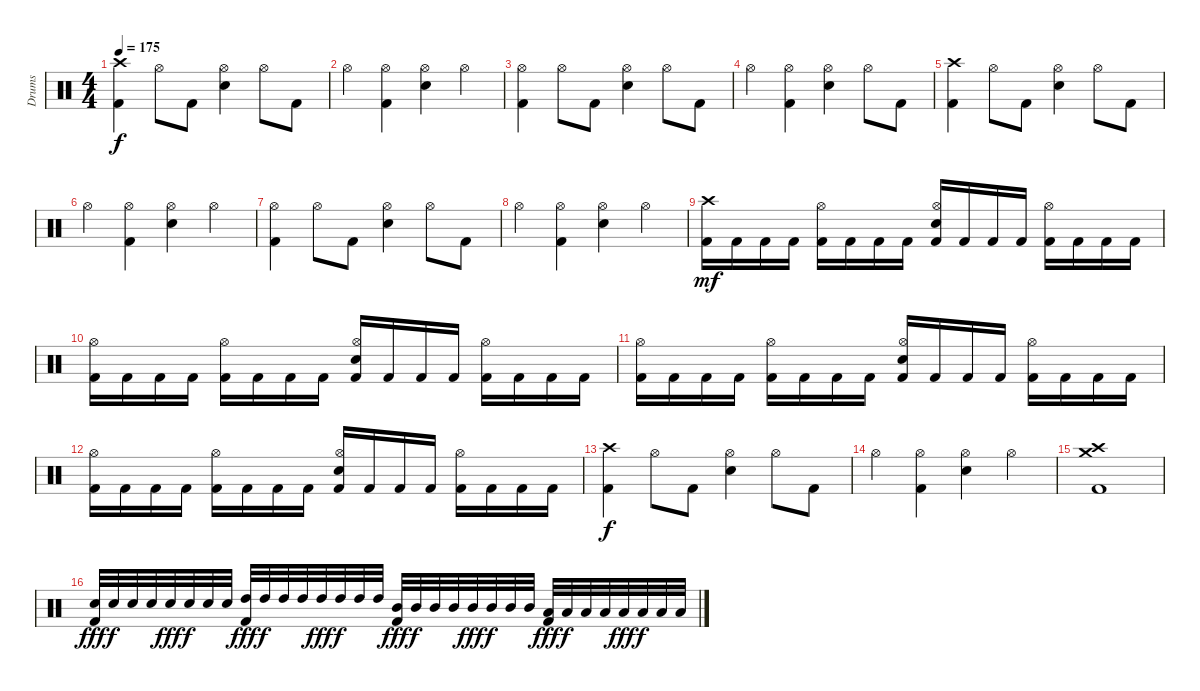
\track ("Drums" "Drums") {instrument percussion}
\staff {score}
\articulation defaults
\ts (4 4)
\tempo 175
\clef neutral
\ks c
("Crash high (hit)" "Kick (hit) 2").4{dy f} "Hi-Hat (open)".8 "Kick (hit) 2".8 ("Hi-Hat (open)" "Electric Snare (hit)").4 "Hi-Hat (open)".8 "Kick (hit) 2".8 |
"Hi-Hat (open)".4 ("Hi-Hat (open)" "Kick (hit) 2").4 ("Hi-Hat (open)" "Electric Snare (hit)").4 "Hi-Hat (open)".4 |
("Hi-Hat (open)" "Kick (hit) 2").4 "Hi-Hat (open)".8 "Kick (hit) 2".8 ("Hi-Hat (open)" "Electric Snare (hit)").4 "Hi-Hat (open)".8 "Kick (hit) 2".8 |
"Hi-Hat (open)".4 ("Hi-Hat (open)" "Kick (hit) 2").4 ("Hi-Hat (open)" "Electric Snare (hit)").4 "Hi-Hat (open)".8 "Kick (hit) 2".8 |
("Crash high (hit)" "Kick (hit) 2").4 "Hi-Hat (open)".8 "Kick (hit) 2".8 ("Hi-Hat (open)" "Electric Snare (hit)").4 "Hi-Hat (open)".8 "Kick (hit) 2".8 |
"Hi-Hat (open)".4 ("Hi-Hat (open)" "Kick (hit) 2").4 ("Hi-Hat (open)" "Electric Snare (hit)").4 "Hi-Hat (open)".4 |
("Hi-Hat (open)" "Kick (hit) 2").4 "Hi-Hat (open)".8 "Kick (hit) 2".8 ("Hi-Hat (open)" "Electric Snare (hit)").4 "Hi-Hat (open)".8 "Kick (hit) 2".8 |
"Hi-Hat (open)".4 ("Hi-Hat (open)" "Kick (hit) 2").4 ("Hi-Hat (open)" "Electric Snare (hit)").4 "Hi-Hat (open)".4 |
\section ("" "")
("Crash high (hit)" "Kick (hit) 2").16{dy mf} "Kick (hit) 2".16 "Kick (hit) 2".16 "Kick (hit) 2".16 ("Hi-Hat (open)" "Kick (hit) 2").16 "Kick (hit) 2".16 "Kick (hit) 2".16 "Kick (hit) 2".16 ("Hi-Hat (open)" "Electric Snare (hit)" "Kick (hit) 2").16 "Kick (hit) 2".16 "Kick (hit) 2".16 "Kick (hit) 2".16 ("Hi-Hat (open)" "Kick (hit) 2").16 "Kick (hit) 2".16 "Kick (hit) 2".16 "Kick (hit) 2".16 |
("Hi-Hat (open)" "Kick (hit) 2").16 "Kick (hit) 2".16 "Kick (hit) 2".16 "Kick (hit) 2".16 ("Hi-Hat (open)" "Kick (hit) 2").16 "Kick (hit) 2".16 "Kick (hit) 2".16 "Kick (hit) 2".16 ("Hi-Hat (open)" "Electric Snare (hit)" "Kick (hit) 2").16 "Kick (hit) 2".16 "Kick (hit) 2".16 "Kick (hit) 2".16 ("Hi-Hat (open)" "Kick (hit) 2").16 "Kick (hit) 2".16 "Kick (hit) 2".16 "Kick (hit) 2".16 |
("Hi-Hat (open)" "Kick (hit) 2").16 "Kick (hit) 2".16 "Kick (hit) 2".16 "Kick (hit) 2".16 ("Hi-Hat (open)" "Kick (hit) 2").16 "Kick (hit) 2".16 "Kick (hit) 2".16 "Kick (hit) 2".16 ("Hi-Hat (open)" "Electric Snare (hit)" "Kick (hit) 2").16 "Kick (hit) 2".16 "Kick (hit) 2".16 "Kick (hit) 2".16 ("Hi-Hat (open)" "Kick (hit) 2").16 "Kick (hit) 2".16 "Kick (hit) 2".16 "Kick (hit) 2".16 |
("Hi-Hat (open)" "Kick (hit) 2").16 "Kick (hit) 2".16 "Kick (hit) 2".16 "Kick (hit) 2".16 ("Hi-Hat (open)" "Kick (hit) 2").16 "Kick (hit) 2".16 "Kick (hit) 2".16 "Kick (hit) 2".16 ("Hi-Hat (open)" "Electric Snare (hit)" "Kick (hit) 2").16 "Kick (hit) 2".16 "Kick (hit) 2".16 "Kick (hit) 2".16 ("Hi-Hat (open)" "Kick (hit) 2").16 "Kick (hit) 2".16 "Kick (hit) 2".16 "Kick (hit) 2".16 |
("Crash high (hit)" "Kick (hit) 2").4{dy f} "Hi-Hat (open)".8 "Kick (hit) 2".8 ("Hi-Hat (open)" "Electric Snare (hit)").4 "Hi-Hat (open)".8 "Kick (hit) 2".8 |
"Hi-Hat (open)".4 ("Hi-Hat (open)" "Kick (hit) 2").4 ("Hi-Hat (open)" "Electric Snare (hit)").4 "Hi-Hat (open)".4 |
("Crash high (hit)" "Crash medium (hit)" "Kick (hit) 2").1 |
("Electric Snare (hit)" "Kick (hit) 2").32{dy fff} "Electric Snare (hit)".32{dy f} "Electric Snare (hit)".32 "Electric Snare (hit)".32 "Electric Snare (hit)".32{dy fff} "Electric Snare (hit)".32{dy f} "Electric Snare (hit)".32 "Electric Snare (hit)".32 ("High Tom (hit)" "Kick (hit) 2").32{dy fff} "High Tom (hit)".32{dy f} "High Tom (hit)".32 "High Tom (hit)".32 "High Tom (hit)".32{dy fff} "High Tom (hit)".32{dy f} "High Tom (hit)".32 "High Tom (hit)".32 ("Mid Tom (hit)" "Kick (hit) 2").32{dy fff} "Mid Tom (hit)".32{dy f} "Mid Tom (hit)".32 "Mid Tom (hit)".32 "Mid Tom (hit)".32{dy fff} "Mid Tom (hit)".32{dy f} "Mid Tom (hit)".32 "Mid Tom (hit)".32 ("Low Tom (hit)" "Kick (hit) 2").32{dy fff} "Low Tom (hit)".32{dy f} "Low Tom (hit)".32 "Low Tom (hit)".32 "Low Tom (hit)".32{dy fff} "Low Tom (hit)".32{dy f} "Low Tom (hit)".32 "Low Tom (hit)".32
